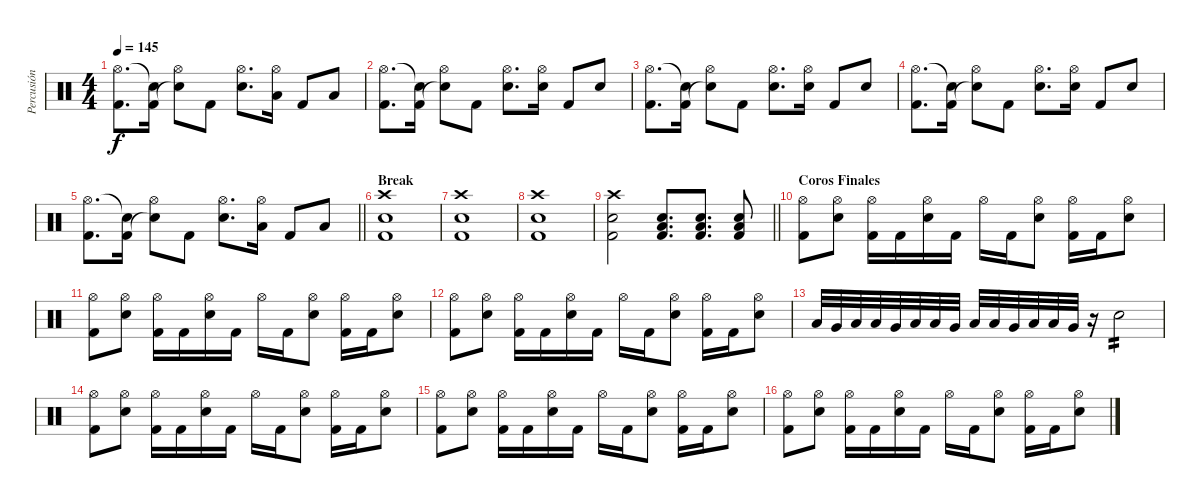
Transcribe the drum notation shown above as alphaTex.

\track ("Percusión" "Percusión") {instrument percussion}
\staff {score}
\articulation defaults
\ts (4 4)
\tempo 145
\clef neutral
\ks c
("Hi-Hat (open)" "Kick (hit) 2").8{d dy f} ("Snare (hit)"{t} "Kick (hit) 2").16 ("Hi-Hat (open)" "Snare (hit)"{t}).8 "Kick (hit) 2".8 ("Hi-Hat (open)" "Electric Snare (hit)").8{d} ("Hi-Hat (open)" "Low Floor Tom (hit)").16 "Kick (hit) 2".8 "Low Floor Tom (hit)".8 |
("Hi-Hat (open)" "Kick (hit) 2").8{d} ("Snare (hit)"{t} "Kick (hit) 2").16 ("Hi-Hat (open)" "Snare (hit)"{t}).8 "Kick (hit) 2".8 ("Hi-Hat (open)" "Electric Snare (hit)").8{d} ("Hi-Hat (open)" "Electric Snare (hit)").16 "Kick (hit) 2".8 "Electric Snare (hit)".8 |
("Hi-Hat (open)" "Kick (hit) 2").8{d} ("Snare (hit)"{t} "Kick (hit) 2").16 ("Hi-Hat (open)" "Snare (hit)"{t}).8 "Kick (hit) 2".8 ("Hi-Hat (open)" "Electric Snare (hit)").8{d} ("Hi-Hat (open)" "Electric Snare (hit)").16 "Kick (hit) 2".8 "Electric Snare (hit)".8 |
("Hi-Hat (open)" "Kick (hit) 2").8{d} ("Snare (hit)"{t} "Kick (hit) 2").16 ("Hi-Hat (open)" "Snare (hit)"{t}).8 "Kick (hit) 2".8 ("Hi-Hat (open)" "Electric Snare (hit)").8{d} ("Hi-Hat (open)" "Electric Snare (hit)").16 "Kick (hit) 2".8 "Electric Snare (hit)".8 |
\barLineRight lightlight
("Hi-Hat (open)" "Kick (hit) 2").8{d} ("Snare (hit)"{t} "Kick (hit) 2").16 ("Hi-Hat (open)" "Snare (hit)"{t}).8 "Kick (hit) 2".8 ("Hi-Hat (open)" "Electric Snare (hit)").8{d} ("Hi-Hat (open)" "Low Floor Tom (hit)").16 "Kick (hit) 2".8 "Low Floor Tom (hit)".8 |
\section ("" "Break")
("Crash high (hit)" "Electric Snare (hit)" "Kick (hit) 2").1 |
("Crash high (hit)" "Electric Snare (hit)" "Kick (hit) 2").1 |
("Crash high (hit)" "Electric Snare (hit)" "Kick (hit) 2").1 |
\barLineRight lightlight
("Crash high (hit)" "Electric Snare (hit)" "Kick (hit) 2").2 ("Low Floor Tom (hit)" "Electric Snare (hit)" "Kick (hit) 2").8{d} ("Low Floor Tom (hit)" "Electric Snare (hit)" "Kick (hit) 2").8{d} ("Low Floor Tom (hit)" "Electric Snare (hit)" "Kick (hit) 2").8 |
\section ("" "Coros Finales")
("Hi-Hat (open)" "Kick (hit) 2").8 ("Hi-Hat (open)" "Electric Snare (hit)").8 ("Hi-Hat (open)" "Kick (hit) 2").16 "Kick (hit) 2".16 ("Hi-Hat (open)" "Electric Snare (hit)").16 "Kick (hit) 2".16 "Hi-Hat (open)".16 "Kick (hit) 2".16 ("Hi-Hat (open)" "Electric Snare (hit)").8 ("Hi-Hat (open)" "Kick (hit) 2").16 "Kick (hit) 2".16 ("Hi-Hat (open)" "Electric Snare (hit)").8 |
("Hi-Hat (open)" "Kick (hit) 2").8 ("Hi-Hat (open)" "Electric Snare (hit)").8 ("Hi-Hat (open)" "Kick (hit) 2").16 "Kick (hit) 2".16 ("Hi-Hat (open)" "Electric Snare (hit)").16 "Kick (hit) 2".16 "Hi-Hat (open)".16 "Kick (hit) 2".16 ("Hi-Hat (open)" "Electric Snare (hit)").8 ("Hi-Hat (open)" "Kick (hit) 2").16 "Kick (hit) 2".16 ("Hi-Hat (open)" "Electric Snare (hit)").8 |
("Hi-Hat (open)" "Kick (hit) 2").8 ("Hi-Hat (open)" "Electric Snare (hit)").8 ("Hi-Hat (open)" "Kick (hit) 2").16 "Kick (hit) 2".16 ("Hi-Hat (open)" "Electric Snare (hit)").16 "Kick (hit) 2".16 "Hi-Hat (open)".16 "Kick (hit) 2".16 ("Hi-Hat (open)" "Electric Snare (hit)").8 ("Hi-Hat (open)" "Kick (hit) 2").16 "Kick (hit) 2".16 ("Hi-Hat (open)" "Electric Snare (hit)").8 |
"Low Floor Tom (hit)".32 "Very Low Tom (hit)".32 "Low Tom (hit)".32 "Low Tom (hit)".32 "Very Low Tom (hit)".32 "Low Floor Tom (hit)".32 "Low Floor Tom (hit)".32 "Very Low Tom (hit)".32 "Low Tom (hit)".32 "Low Floor Tom (hit)".32 "Very Low Tom (hit)".32 "Low Tom (hit)".32 "Low Floor Tom (hit)".32 "Very Low Tom (hit)".32 r.16 "Electric Snare (hit)".2{tp 2} |
("Hi-Hat (open)" "Kick (hit) 2").8 ("Hi-Hat (open)" "Electric Snare (hit)").8 ("Hi-Hat (open)" "Kick (hit) 2").16 "Kick (hit) 2".16 ("Hi-Hat (open)" "Electric Snare (hit)").16 "Kick (hit) 2".16 "Hi-Hat (open)".16 "Kick (hit) 2".16 ("Hi-Hat (open)" "Electric Snare (hit)").8 ("Hi-Hat (open)" "Kick (hit) 2").16 "Kick (hit) 2".16 ("Hi-Hat (open)" "Electric Snare (hit)").8 |
("Hi-Hat (open)" "Kick (hit) 2").8 ("Hi-Hat (open)" "Electric Snare (hit)").8 ("Hi-Hat (open)" "Kick (hit) 2").16 "Kick (hit) 2".16 ("Hi-Hat (open)" "Electric Snare (hit)").16 "Kick (hit) 2".16 "Hi-Hat (open)".16 "Kick (hit) 2".16 ("Hi-Hat (open)" "Electric Snare (hit)").8 ("Hi-Hat (open)" "Kick (hit) 2").16 "Kick (hit) 2".16 ("Hi-Hat (open)" "Electric Snare (hit)").8 |
("Hi-Hat (open)" "Kick (hit) 2").8 ("Hi-Hat (open)" "Electric Snare (hit)").8 ("Hi-Hat (open)" "Kick (hit) 2").16 "Kick (hit) 2".16 ("Hi-Hat (open)" "Electric Snare (hit)").16 "Kick (hit) 2".16 "Hi-Hat (open)".16 "Kick (hit) 2".16 ("Hi-Hat (open)" "Electric Snare (hit)").8 ("Hi-Hat (open)" "Kick (hit) 2").16 "Kick (hit) 2".16 ("Hi-Hat (open)" "Electric Snare (hit)").8
